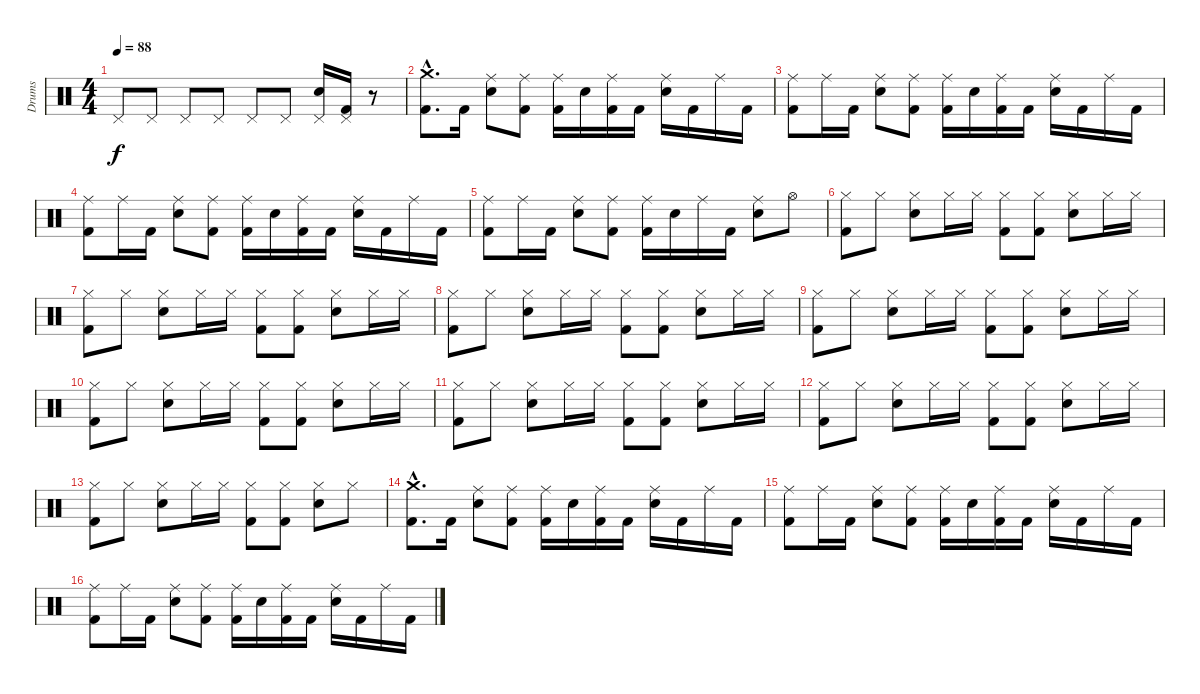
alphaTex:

\track ("Drums" "Drums") {instrument percussion}
\staff {score}
\articulation defaults
\ts (4 4)
\tempo 88
\clef neutral
\ks c "Pedal Hi-Hat (hit)".8{dy f} "Pedal Hi-Hat (hit)".8 "Pedal Hi-Hat (hit)".8 "Pedal Hi-Hat (hit)".8 "Pedal Hi-Hat (hit)".8 "Pedal Hi-Hat (hit)".8
("Pedal Hi-Hat (hit)" "Electric Snare (hit)").16 ("Pedal Hi-Hat (hit)" "Kick (hit) 2").16 r.8 |
("Crash medium (hit)"{hac} "Kick (hit) 2"{hac}).8{d volume 16} "Kick (hit) 2".16 ("Ride (middle)" "Electric Snare (hit)").8 ("Ride (middle)" "Kick (hit) 2").8 ("Ride (middle)" "Kick (hit) 2").16 "Electric Snare (hit)".16 ("Ride (middle)" "Kick (hit) 2").16 "Kick (hit) 2".16 ("Ride (middle)" "Electric Snare (hit)").16 "Kick (hit) 2".16 "Ride (middle)".16 "Kick (hit) 2".16 |
("Ride (middle)" "Kick (hit) 2").8 "Ride (middle)".16 "Kick (hit) 2".16 ("Ride (middle)" "Electric Snare (hit)").8 ("Ride (middle)" "Kick (hit) 2").8 ("Ride (middle)" "Kick (hit) 2").16 "Electric Snare (hit)".16 ("Ride (middle)" "Kick (hit) 2").16 "Kick (hit) 2".16 ("Ride (middle)" "Electric Snare (hit)").16 "Kick (hit) 2".16 "Ride (middle)".16 "Kick (hit) 2".16 |
("Ride (middle)" "Kick (hit) 2").8 "Ride (middle)".16 "Kick (hit) 2".16 ("Ride (middle)" "Electric Snare (hit)").8 ("Ride (middle)" "Kick (hit) 2").8 ("Ride (middle)" "Kick (hit) 2").16 "Electric Snare (hit)".16 ("Ride (middle)" "Kick (hit) 2").16 "Kick (hit) 2".16 ("Ride (middle)" "Electric Snare (hit)").16 "Kick (hit) 2".16 "Ride (middle)".16 "Kick (hit) 2".16 |
("Ride (middle)" "Kick (hit) 2").8 "Ride (middle)".16 "Kick (hit) 2".16 ("Ride (middle)" "Electric Snare (hit)").8 ("Ride (middle)" "Kick (hit) 2").8 ("Ride (middle)" "Kick (hit) 2").16 "Electric Snare (hit)".16 "Ride (middle)".16 "Kick (hit) 2".16 ("Ride (middle)" "Electric Snare (hit)").8 "Hi-Hat (open)".8 |
("Hi-Hat (closed)" "Kick (hit) 2").8 "Hi-Hat (closed)".8 ("Hi-Hat (closed)" "Electric Snare (hit)").8 "Hi-Hat (closed)".16 "Hi-Hat (closed)".16 ("Hi-Hat (closed)" "Kick (hit) 2").8 ("Hi-Hat (closed)" "Kick (hit) 2").8 ("Hi-Hat (closed)" "Electric Snare (hit)").8 "Hi-Hat (closed)".16 "Hi-Hat (closed)".16 |
("Hi-Hat (closed)" "Kick (hit) 2").8 "Hi-Hat (closed)".8 ("Hi-Hat (closed)" "Electric Snare (hit)").8 "Hi-Hat (closed)".16 "Hi-Hat (closed)".16 ("Hi-Hat (closed)" "Kick (hit) 2").8 ("Hi-Hat (closed)" "Kick (hit) 2").8 ("Hi-Hat (closed)" "Electric Snare (hit)").8 "Hi-Hat (closed)".16 "Hi-Hat (closed)".16 |
("Hi-Hat (closed)" "Kick (hit) 2").8 "Hi-Hat (closed)".8 ("Hi-Hat (closed)" "Electric Snare (hit)").8 "Hi-Hat (closed)".16 "Hi-Hat (closed)".16 ("Hi-Hat (closed)" "Kick (hit) 2").8 ("Hi-Hat (closed)" "Kick (hit) 2").8 ("Hi-Hat (closed)" "Electric Snare (hit)").8 "Hi-Hat (closed)".16 "Hi-Hat (closed)".16 |
("Hi-Hat (closed)" "Kick (hit) 2").8 "Hi-Hat (closed)".8 ("Hi-Hat (closed)" "Electric Snare (hit)").8 "Hi-Hat (closed)".16 "Hi-Hat (closed)".16 ("Hi-Hat (closed)" "Kick (hit) 2").8 ("Hi-Hat (closed)" "Kick (hit) 2").8 ("Hi-Hat (closed)" "Electric Snare (hit)").8 "Hi-Hat (closed)".16 "Hi-Hat (closed)".16 |
("Hi-Hat (closed)" "Kick (hit) 2").8 "Hi-Hat (closed)".8 ("Hi-Hat (closed)" "Electric Snare (hit)").8 "Hi-Hat (closed)".16 "Hi-Hat (closed)".16 ("Hi-Hat (closed)" "Kick (hit) 2").8 ("Hi-Hat (closed)" "Kick (hit) 2").8 ("Hi-Hat (closed)" "Electric Snare (hit)").8 "Hi-Hat (closed)".16 "Hi-Hat (closed)".16 |
("Hi-Hat (closed)" "Kick (hit) 2").8 "Hi-Hat (closed)".8 ("Hi-Hat (closed)" "Electric Snare (hit)").8 "Hi-Hat (closed)".16 "Hi-Hat (closed)".16 ("Hi-Hat (closed)" "Kick (hit) 2").8 ("Hi-Hat (closed)" "Kick (hit) 2").8 ("Hi-Hat (closed)" "Electric Snare (hit)").8 "Hi-Hat (closed)".16 "Hi-Hat (closed)".16 |
("Hi-Hat (closed)" "Kick (hit) 2").8 "Hi-Hat (closed)".8 ("Hi-Hat (closed)" "Electric Snare (hit)").8 "Hi-Hat (closed)".16 "Hi-Hat (closed)".16 ("Hi-Hat (closed)" "Kick (hit) 2").8 ("Hi-Hat (closed)" "Kick (hit) 2").8 ("Hi-Hat (closed)" "Electric Snare (hit)").8 "Hi-Hat (closed)".16 "Hi-Hat (closed)".16 |
("Hi-Hat (closed)" "Kick (hit) 2").8 "Hi-Hat (closed)".8 ("Hi-Hat (closed)" "Electric Snare (hit)").8 "Hi-Hat (closed)".16 "Hi-Hat (closed)".16 ("Hi-Hat (closed)" "Kick (hit) 2").8 ("Hi-Hat (closed)" "Kick (hit) 2").8 ("Hi-Hat (closed)" "Electric Snare (hit)").8 "Hi-Hat (closed)".8 |
("Crash medium (hit)"{hac} "Kick (hit) 2"{hac}).8{d volume 16} "Kick (hit) 2".16 ("Ride (middle)" "Electric Snare (hit)").8 ("Ride (middle)" "Kick (hit) 2").8 ("Ride (middle)" "Kick (hit) 2").16 "Electric Snare (hit)".16 ("Ride (middle)" "Kick (hit) 2").16 "Kick (hit) 2".16 ("Ride (middle)" "Electric Snare (hit)").16 "Kick (hit) 2".16 "Ride (middle)".16 "Kick (hit) 2".16 |
("Ride (middle)" "Kick (hit) 2").8 "Ride (middle)".16 "Kick (hit) 2".16 ("Ride (middle)" "Electric Snare (hit)").8 ("Ride (middle)" "Kick (hit) 2").8 ("Ride (middle)" "Kick (hit) 2").16 "Electric Snare (hit)".16 ("Ride (middle)" "Kick (hit) 2").16 "Kick (hit) 2".16 ("Ride (middle)" "Electric Snare (hit)").16 "Kick (hit) 2".16 "Ride (middle)".16 "Kick (hit) 2".16 |
("Ride (middle)" "Kick (hit) 2").8 "Ride (middle)".16 "Kick (hit) 2".16 ("Ride (middle)" "Electric Snare (hit)").8 ("Ride (middle)" "Kick (hit) 2").8 ("Ride (middle)" "Kick (hit) 2").16 "Electric Snare (hit)".16 ("Ride (middle)" "Kick (hit) 2").16 "Kick (hit) 2".16 ("Ride (middle)" "Electric Snare (hit)").16 "Kick (hit) 2".16 "Ride (middle)".16 "Kick (hit) 2".16
